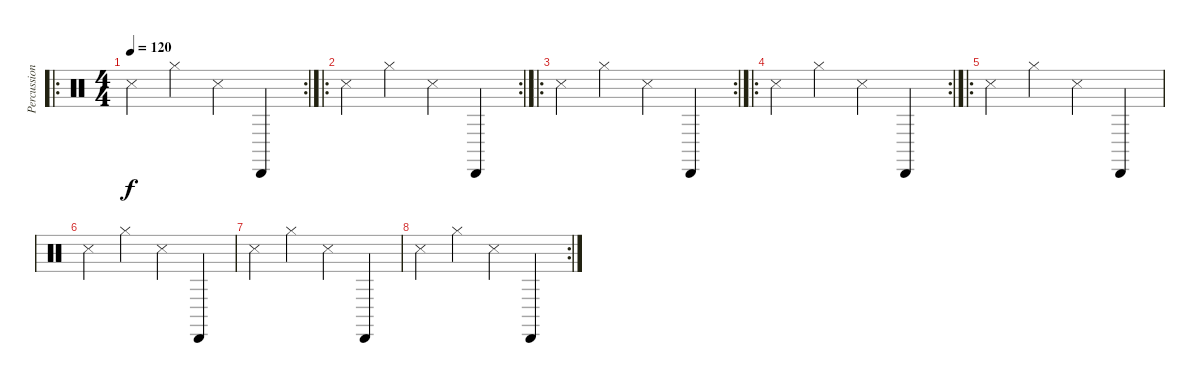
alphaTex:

\track ("Percussions" "Percussion") {instrument percussion}
\staff {score}
\articulation defaults
\ro
\rc 2
\ts (4 4)
\tempo 120
\clef neutral
\ks c "Snare (side stick) 3".4{dy f} "Hi-Hat (closed)".4 "Snare (side stick) 3".4 "Cabasa (hit)".4
|
\ro
\rc 2 "Snare (side stick) 3".4 "Hi-Hat (closed)".4 "Snare (side stick) 3".4 "Cabasa (hit)".4
|
\ro
\rc 2 "Snare (side stick) 3".4 "Hi-Hat (closed)".4 "Snare (side stick) 3".4 "Cabasa (hit)".4
|
\ro
\rc 2 "Snare (side stick) 3".4 "Hi-Hat (closed)".4 "Snare (side stick) 3".4 "Cabasa (hit)".4
|
\ro "Snare (side stick) 3".4 "Hi-Hat (closed)".4 "Snare (side stick) 3".4 "Cabasa (hit)".4
|
"Snare (side stick) 3".4 "Hi-Hat (closed)".4 "Snare (side stick) 3".4 "Cabasa (hit)".4 |
"Snare (side stick) 3".4 "Hi-Hat (closed)".4 "Snare (side stick) 3".4 "Cabasa (hit)".4 |
\rc 2 "Snare (side stick) 3".4 "Hi-Hat (closed)".4 "Snare (side stick) 3".4 "Cabasa (hit)".4
